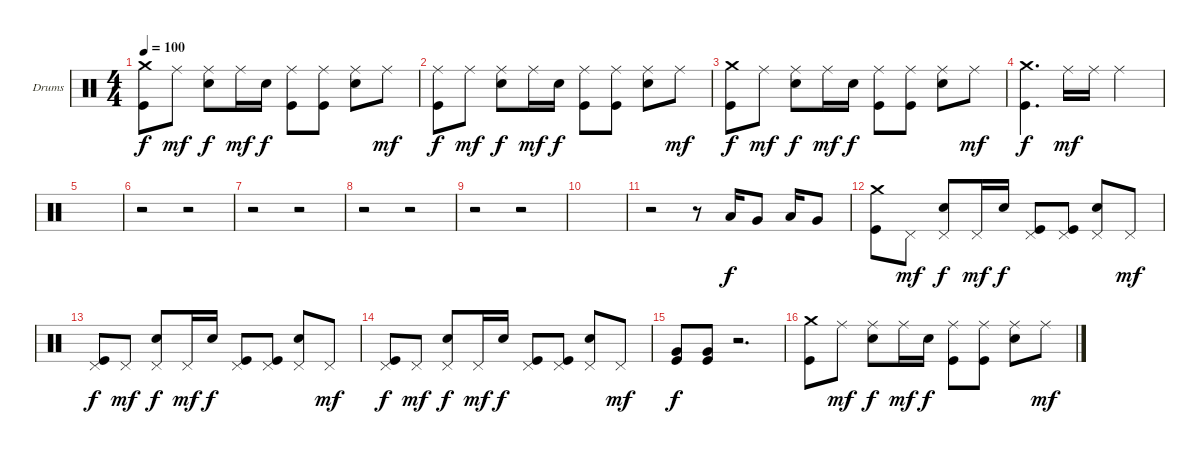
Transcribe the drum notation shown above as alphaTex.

\defaultSystemsLayout 4
\bracketExtendMode groupsimilarinstruments
\firstSystemTrackNameOrientation horizontal
\otherSystemsTrackNameOrientation horizontal
\track ("Drums" "Drums") {instrument percussion}
\staff {score}
\articulation defaults
\ts (4 4)
\tempo 100
\clef neutral
\ks c
("Kick (hit)" "Crash medium (hit)").8{dy f} "Ride (middle)".8{dy mf} ("Snare (hit) 2" "Ride (middle)").8{dy f} "Ride (middle)".16{dy mf} "Snare (hit) 2".16{dy f} ("Kick (hit)" "Ride (middle)").8 ("Kick (hit)" "Ride (middle)").8 ("Snare (hit) 2" "Ride (middle)").8 "Ride (middle)".8{dy mf} |
("Kick (hit)" "Ride (middle)").8{dy f} "Ride (middle)".8{dy mf} ("Snare (hit) 2" "Ride (middle)").8{dy f} "Ride (middle)".16{dy mf} "Snare (hit) 2".16{dy f} ("Kick (hit)" "Ride (middle)").8 ("Kick (hit)" "Ride (middle)").8 ("Snare (hit) 2" "Ride (middle)").8 "Ride (middle)".8{dy mf} |
("Kick (hit)" "Crash medium (hit)").8{dy f} "Ride (middle)".8{dy mf} ("Snare (hit) 2" "Ride (middle)").8{dy f} "Ride (middle)".16{dy mf} "Snare (hit) 2".16{dy f} ("Kick (hit)" "Ride (middle)").8 ("Kick (hit)" "Ride (middle)").8 ("Snare (hit) 2" "Ride (middle)").8 "Ride (middle)".8{dy mf} |
("Kick (hit)" "Crash medium (hit)").4{d dy f} "Ride (middle)".16{dy mf} "Ride (middle)".16 "Ride (middle)".2 |
|
r.2 r.2 |
r.2 r.2 |
r.2 r.2 |
r.2 r.2 |
|
r.2 r.8 "Low Tom (hit)".16{dy f} "Very Low Tom (hit)".8 "Low Tom (hit)".16 "Very Low Tom (hit)".8 |
("Kick (hit)" "Crash medium (hit)").8 "Pedal Hi-Hat (hit)".8{dy mf} ("Snare (hit) 2" "Pedal Hi-Hat (hit)").8{dy f} "Pedal Hi-Hat (hit)".16{dy mf} "Snare (hit) 2".16{dy f} ("Kick (hit)" "Pedal Hi-Hat (hit)").8 ("Kick (hit)" "Pedal Hi-Hat (hit)").8 ("Snare (hit) 2" "Pedal Hi-Hat (hit)").8 "Pedal Hi-Hat (hit)".8{dy mf} |
("Kick (hit)" "Pedal Hi-Hat (hit)").8{dy f} "Pedal Hi-Hat (hit)".8{dy mf} ("Snare (hit) 2" "Pedal Hi-Hat (hit)").8{dy f} "Pedal Hi-Hat (hit)".16{dy mf} "Snare (hit) 2".16{dy f} ("Kick (hit)" "Pedal Hi-Hat (hit)").8 ("Kick (hit)" "Pedal Hi-Hat (hit)").8 ("Snare (hit) 2" "Pedal Hi-Hat (hit)").8 "Pedal Hi-Hat (hit)".8{dy mf} |
("Kick (hit)" "Pedal Hi-Hat (hit)").8{dy f} "Pedal Hi-Hat (hit)".8{dy mf} ("Snare (hit) 2" "Pedal Hi-Hat (hit)").8{dy f} "Pedal Hi-Hat (hit)".16{dy mf} "Snare (hit) 2".16{dy f} ("Kick (hit)" "Pedal Hi-Hat (hit)").8 ("Kick (hit)" "Pedal Hi-Hat (hit)").8 ("Snare (hit) 2" "Pedal Hi-Hat (hit)").8 "Pedal Hi-Hat (hit)".8{dy mf} |
("Kick (hit)" "Very Low Tom (hit)").8{dy f} ("Kick (hit)" "Very Low Tom (hit)").8 r.2{d} |
("Kick (hit)" "Crash medium (hit)").8 "Ride (middle)".8{dy mf} ("Snare (hit) 2" "Ride (middle)").8{dy f} "Ride (middle)".16{dy mf} "Snare (hit) 2".16{dy f} ("Kick (hit)" "Ride (middle)").8 ("Kick (hit)" "Ride (middle)").8 ("Snare (hit) 2" "Ride (middle)").8 "Ride (middle)".8{dy mf}
